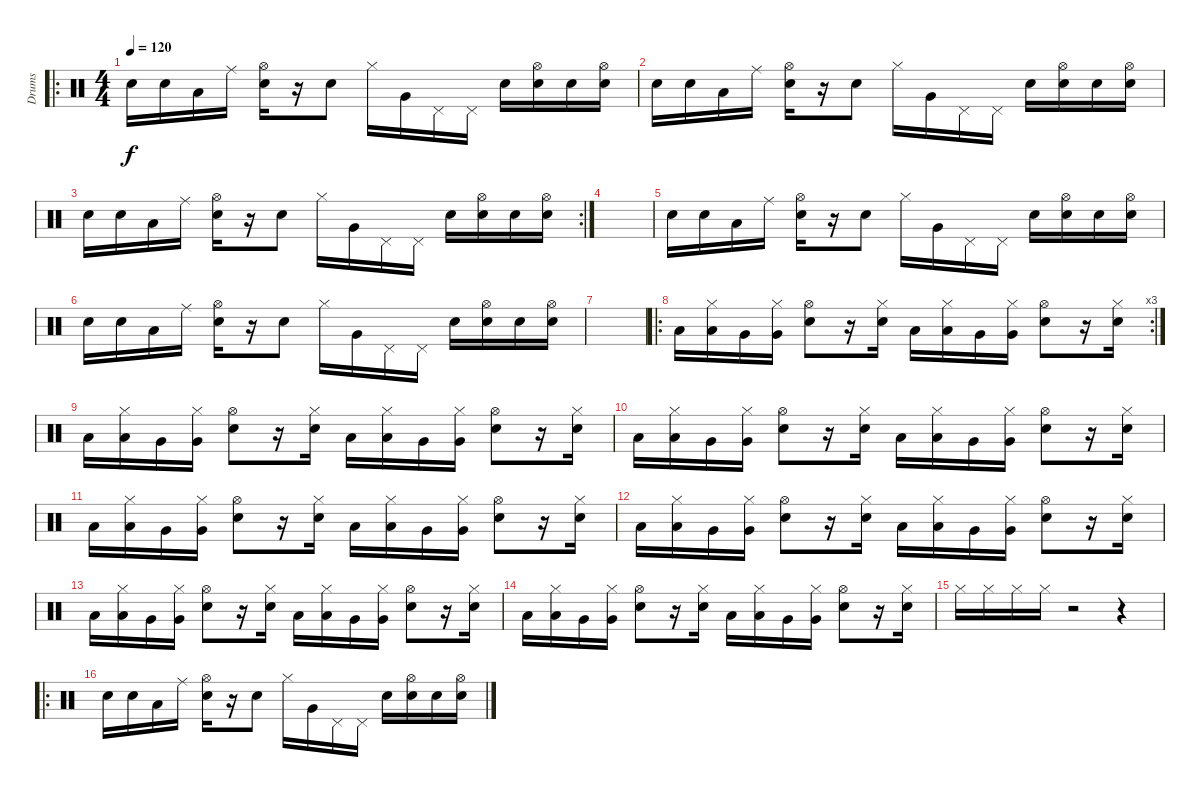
\track ("Drums" "Drums") {instrument percussion}
\staff {score}
\articulation defaults
\ro
\ts (4 4)
\tempo 120
\clef neutral
\ks c "Snare (hit) 2".16{dy f} "Snare (hit) 2".16 "Low Floor Tom (hit)".16 "Ride (middle)".16
("Electric Snare (hit)" "Hi-Hat (open)").16 r.16 "Electric Snare (hit)".8 "Hi-Hat (closed)".16 "Very Low Tom (hit)".16 "Pedal Hi-Hat (hit)".16 "Pedal Hi-Hat (hit)".16 "Electric Snare (hit)".16 ("Electric Snare (hit)" "Hi-Hat (open)").16 "Electric Snare (hit)".16 ("Electric Snare (hit)" "Hi-Hat (open)").16 |
"Snare (hit) 2".16 "Snare (hit) 2".16 "Low Floor Tom (hit)".16 "Ride (middle)".16 ("Electric Snare (hit)" "Hi-Hat (open)").16 r.16 "Electric Snare (hit)".8 "Hi-Hat (closed)".16 "Very Low Tom (hit)".16 "Pedal Hi-Hat (hit)".16 "Pedal Hi-Hat (hit)".16 "Electric Snare (hit)".16 ("Electric Snare (hit)" "Hi-Hat (open)").16 "Electric Snare (hit)".16 ("Electric Snare (hit)" "Hi-Hat (open)").16 |
\rc 2 "Snare (hit) 2".16 "Snare (hit) 2".16 "Low Floor Tom (hit)".16 "Ride (middle)".16
("Electric Snare (hit)" "Hi-Hat (open)").16 r.16 "Electric Snare (hit)".8 "Hi-Hat (closed)".16 "Very Low Tom (hit)".16 "Pedal Hi-Hat (hit)".16 "Pedal Hi-Hat (hit)".16 "Electric Snare (hit)".16 ("Electric Snare (hit)" "Hi-Hat (open)").16 "Electric Snare (hit)".16 ("Electric Snare (hit)" "Hi-Hat (open)").16 |
|
"Snare (hit) 2".16 "Snare (hit) 2".16 "Low Floor Tom (hit)".16 "Ride (middle)".16 ("Electric Snare (hit)" "Hi-Hat (open)").16 r.16 "Electric Snare (hit)".8 "Hi-Hat (closed)".16 "Very Low Tom (hit)".16 "Pedal Hi-Hat (hit)".16 "Pedal Hi-Hat (hit)".16 "Electric Snare (hit)".16 ("Electric Snare (hit)" "Hi-Hat (open)").16 "Electric Snare (hit)".16 ("Electric Snare (hit)" "Hi-Hat (open)").16 |
"Snare (hit) 2".16 "Snare (hit) 2".16 "Low Floor Tom (hit)".16 "Ride (middle)".16 ("Electric Snare (hit)" "Hi-Hat (open)").16 r.16 "Electric Snare (hit)".8 "Hi-Hat (closed)".16 "Very Low Tom (hit)".16 "Pedal Hi-Hat (hit)".16 "Pedal Hi-Hat (hit)".16 "Electric Snare (hit)".16 ("Electric Snare (hit)" "Hi-Hat (open)").16 "Electric Snare (hit)".16 ("Electric Snare (hit)" "Hi-Hat (open)").16 |
|
\ro
\rc 3 "Low Floor Tom (hit)".16
("Low Floor Tom (hit)" "Hi-Hat (closed)").16 "Very Low Tom (hit)".16 ("Very Low Tom (hit)" "Hi-Hat (closed)").16 ("Electric Snare (hit)" "Hi-Hat (open)").8 r.16 ("Hi-Hat (closed)" "Electric Snare (hit)").16 "Low Floor Tom (hit)".16 ("Low Floor Tom (hit)" "Hi-Hat (closed)").16 "Very Low Tom (hit)".16 ("Very Low Tom (hit)" "Hi-Hat (closed)").16 ("Electric Snare (hit)" "Hi-Hat (open)").8 r.16 ("Hi-Hat (closed)" "Electric Snare (hit)").16 |
"Low Floor Tom (hit)".16 ("Low Floor Tom (hit)" "Hi-Hat (closed)").16 "Very Low Tom (hit)".16 ("Very Low Tom (hit)" "Hi-Hat (closed)").16 ("Electric Snare (hit)" "Hi-Hat (open)").8 r.16 ("Hi-Hat (closed)" "Electric Snare (hit)").16 "Low Floor Tom (hit)".16 ("Low Floor Tom (hit)" "Hi-Hat (closed)").16 "Very Low Tom (hit)".16 ("Very Low Tom (hit)" "Hi-Hat (closed)").16 ("Electric Snare (hit)" "Hi-Hat (open)").8 r.16 ("Hi-Hat (closed)" "Electric Snare (hit)").16 |
"Low Floor Tom (hit)".16 ("Low Floor Tom (hit)" "Hi-Hat (closed)").16 "Very Low Tom (hit)".16 ("Very Low Tom (hit)" "Hi-Hat (closed)").16 ("Electric Snare (hit)" "Hi-Hat (open)").8 r.16 ("Hi-Hat (closed)" "Electric Snare (hit)").16 "Low Floor Tom (hit)".16 ("Low Floor Tom (hit)" "Hi-Hat (closed)").16 "Very Low Tom (hit)".16 ("Very Low Tom (hit)" "Hi-Hat (closed)").16 ("Electric Snare (hit)" "Hi-Hat (open)").8 r.16 ("Hi-Hat (closed)" "Electric Snare (hit)").16 |
"Low Floor Tom (hit)".16 ("Low Floor Tom (hit)" "Hi-Hat (closed)").16 "Very Low Tom (hit)".16 ("Very Low Tom (hit)" "Hi-Hat (closed)").16 ("Electric Snare (hit)" "Hi-Hat (open)").8 r.16 ("Hi-Hat (closed)" "Electric Snare (hit)").16 "Low Floor Tom (hit)".16 ("Low Floor Tom (hit)" "Hi-Hat (closed)").16 "Very Low Tom (hit)".16 ("Very Low Tom (hit)" "Hi-Hat (closed)").16 ("Electric Snare (hit)" "Hi-Hat (open)").8 r.16 ("Hi-Hat (closed)" "Electric Snare (hit)").16 |
"Low Floor Tom (hit)".16 ("Low Floor Tom (hit)" "Hi-Hat (closed)").16 "Very Low Tom (hit)".16 ("Very Low Tom (hit)" "Hi-Hat (closed)").16 ("Electric Snare (hit)" "Hi-Hat (open)").8 r.16 ("Hi-Hat (closed)" "Electric Snare (hit)").16 "Low Floor Tom (hit)".16 ("Low Floor Tom (hit)" "Hi-Hat (closed)").16 "Very Low Tom (hit)".16 ("Very Low Tom (hit)" "Hi-Hat (closed)").16 ("Electric Snare (hit)" "Hi-Hat (open)").8 r.16 ("Hi-Hat (closed)" "Electric Snare (hit)").16 |
"Low Floor Tom (hit)".16 ("Low Floor Tom (hit)" "Hi-Hat (closed)").16 "Very Low Tom (hit)".16 ("Very Low Tom (hit)" "Hi-Hat (closed)").16 ("Electric Snare (hit)" "Hi-Hat (open)").8 r.16 ("Hi-Hat (closed)" "Electric Snare (hit)").16 "Low Floor Tom (hit)".16 ("Low Floor Tom (hit)" "Hi-Hat (closed)").16 "Very Low Tom (hit)".16 ("Very Low Tom (hit)" "Hi-Hat (closed)").16 ("Electric Snare (hit)" "Hi-Hat (open)").8 r.16 ("Hi-Hat (closed)" "Electric Snare (hit)").16 |
"Low Floor Tom (hit)".16 ("Low Floor Tom (hit)" "Hi-Hat (closed)").16 "Very Low Tom (hit)".16 ("Very Low Tom (hit)" "Hi-Hat (closed)").16 ("Electric Snare (hit)" "Hi-Hat (open)").8 r.16 ("Hi-Hat (closed)" "Electric Snare (hit)").16 "Low Floor Tom (hit)".16 ("Low Floor Tom (hit)" "Hi-Hat (closed)").16 "Very Low Tom (hit)".16 ("Very Low Tom (hit)" "Hi-Hat (closed)").16 ("Electric Snare (hit)" "Hi-Hat (open)").8 r.16 ("Hi-Hat (closed)" "Electric Snare (hit)").16 |
"Hi-Hat (closed)".16 "Hi-Hat (closed)".16 "Hi-Hat (closed)".16 "Hi-Hat (closed)".16 r.2 r.4 |
\ro "Snare (hit) 2".16 "Snare (hit) 2".16 "Low Floor Tom (hit)".16 "Ride (middle)".16
("Electric Snare (hit)" "Hi-Hat (open)").16 r.16 "Electric Snare (hit)".8 "Hi-Hat (closed)".16 "Very Low Tom (hit)".16 "Pedal Hi-Hat (hit)".16 "Pedal Hi-Hat (hit)".16 "Electric Snare (hit)".16 ("Electric Snare (hit)" "Hi-Hat (open)").16 "Electric Snare (hit)".16 ("Electric Snare (hit)" "Hi-Hat (open)").16
